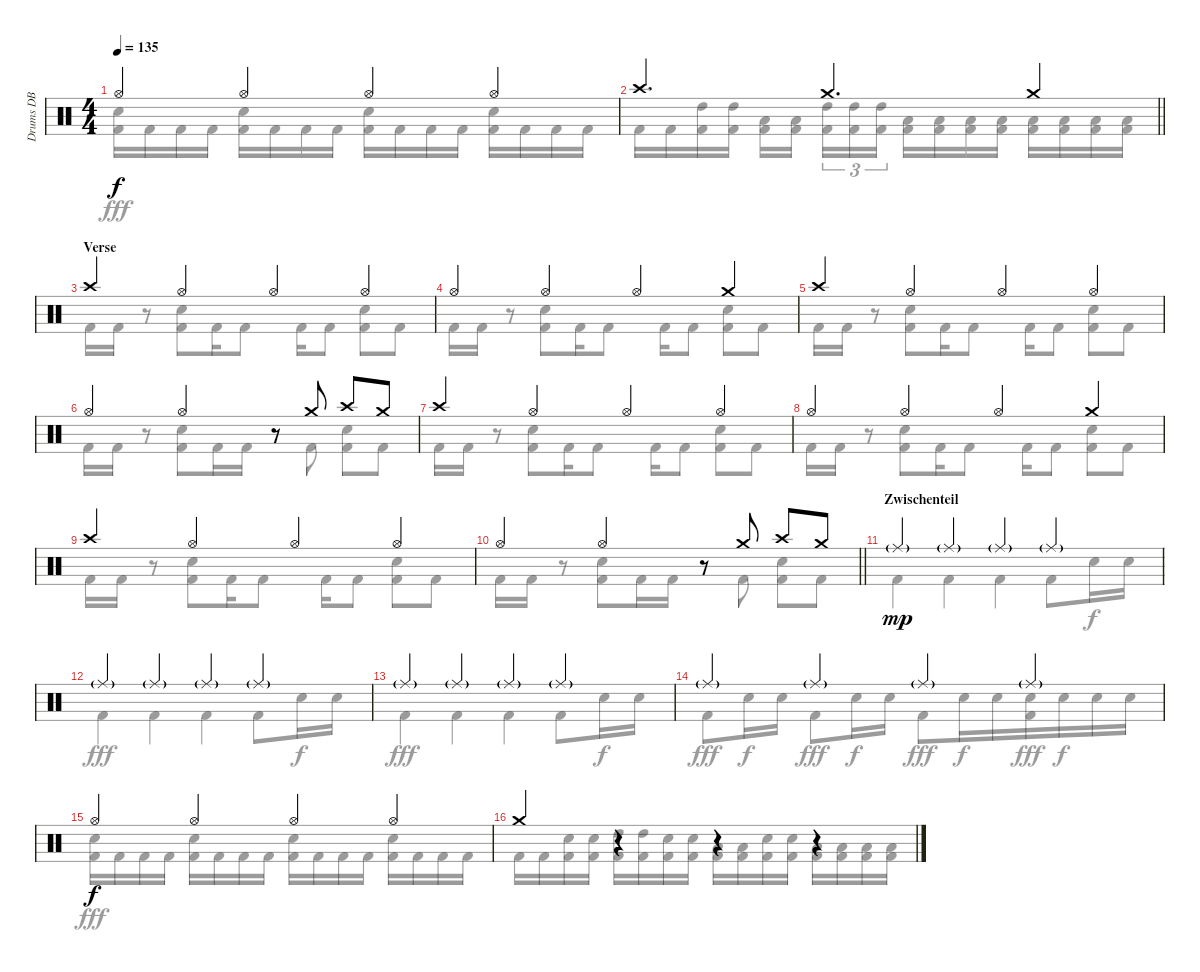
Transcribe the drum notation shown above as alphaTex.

\track ("Drums DB" "Drums DB") {instrument percussion}
\staff {score}
\articulation defaults
\voice
\ts (4 4)
\tempo 135
\clef neutral
\ks aminor "Hi-Hat (open)".4{dy f} "Hi-Hat (open)".4 "Hi-Hat (open)".4 "Hi-Hat (open)".4
|
\barLineRight lightlight "Crash high (hit)".4{d} "Crash medium (hit)".4{d} "Crash medium (hit)".4
|
\section ("" "Verse")
"Crash high (hit)".4 "Hi-Hat (open)".4 "Hi-Hat (open)".4 "Hi-Hat (open)".4 |
"Hi-Hat (open)".4 "Hi-Hat (open)".4 "Hi-Hat (open)".4 "Crash medium (hit)".4 |
"Crash high (hit)".4 "Hi-Hat (open)".4 "Hi-Hat (open)".4 "Hi-Hat (open)".4 |
"Hi-Hat (open)".4 "Hi-Hat (open)".4 r.8 "Crash medium (hit)".8 "Crash high (hit)".8 "Crash medium (hit)".8 |
"Crash high (hit)".4 "Hi-Hat (open)".4 "Hi-Hat (open)".4 "Hi-Hat (open)".4 |
"Hi-Hat (open)".4 "Hi-Hat (open)".4 "Hi-Hat (open)".4 "Crash medium (hit)".4 |
"Crash high (hit)".4 "Hi-Hat (open)".4 "Hi-Hat (open)".4 "Hi-Hat (open)".4 |
\barLineRight lightlight "Hi-Hat (open)".4 "Hi-Hat (open)".4
r.8 "Crash medium (hit)".8 "Crash high (hit)".8 "Crash medium (hit)".8 |
\section ("" "Zwischenteil")
"Ride (middle)"{g}.4{dy mp} "Ride (middle)"{g}.4 "Ride (middle)"{g}.4 "Ride (middle)"{g}.4 |
"Ride (middle)"{g}.4 "Ride (middle)"{g}.4 "Ride (middle)"{g}.4 "Ride (middle)"{g}.4 |
"Ride (middle)"{g}.4 "Ride (middle)"{g}.4 "Ride (middle)"{g}.4 "Ride (middle)"{g}.4 |
"Ride (middle)"{g}.4 "Ride (middle)"{g}.4 "Ride (middle)"{g}.4 "Ride (middle)"{g}.4 |
"Hi-Hat (open)".4{dy f} "Hi-Hat (open)".4 "Hi-Hat (open)".4 "Hi-Hat (open)".4 |
"Crash medium (hit)".4 r.4 r.4 r.4
\voice
\clef neutral
\ottava regular
\simile none
\ks aminor
("Snare (hit) 2" "Kick (hit) 2").16{dy fff} "Kick (hit) 2".16 "Kick (hit) 2".16 "Kick (hit) 2".16 ("Snare (hit) 2" "Kick (hit) 2").16 "Kick (hit) 2".16 "Kick (hit) 2".16 "Kick (hit) 2".16 ("Snare (hit) 2" "Kick (hit) 2").16 "Kick (hit) 2".16 "Kick (hit) 2".16 "Kick (hit) 2".16 ("Snare (hit) 2" "Kick (hit) 2").16 "Kick (hit) 2".16 "Kick (hit) 2".16 "Kick (hit) 2".16 |
\barLineRight lightlight "Kick (hit) 2".16 "Kick (hit) 2".16
("High Tom (hit)" "Kick (hit) 2").16 ("High Tom (hit)" "Kick (hit) 2").16 ("Low Tom (hit)" "Kick (hit) 2").16 ("Low Tom (hit)" "Kick (hit) 2").16{beam splitsecondary} ("High Tom (hit)" "Kick (hit) 2").16{tu (3 2)} ("High Tom (hit)" "Kick (hit) 2").16{tu (3 2)} ("High Tom (hit)" "Kick (hit) 2").16{tu (3 2)} ("Low Tom (hit)" "Kick (hit) 2").16 ("Low Tom (hit)" "Kick (hit) 2").16 ("Low Floor Tom (hit)" "Kick (hit) 2").16 ("Low Floor Tom (hit)" "Kick (hit) 2").16 ("Low Tom (hit)" "Kick (hit) 2").16 ("Low Tom (hit)" "Kick (hit) 2").16 ("Low Floor Tom (hit)" "Kick (hit) 2").16 ("Low Floor Tom (hit)" "Kick (hit) 2").16 |
"Kick (hit) 2".16 "Kick (hit) 2".16 r.8 ("Snare (hit) 2" "Kick (hit) 2").8 "Kick (hit) 2".16 "Kick (hit) 2".8 "Kick (hit) 2".16 "Kick (hit) 2".8 ("Snare (hit) 2" "Kick (hit) 2").8 "Kick (hit) 2".8 |
"Kick (hit) 2".16 "Kick (hit) 2".16 r.8 ("Snare (hit) 2" "Kick (hit) 2").8 "Kick (hit) 2".16 "Kick (hit) 2".8 "Kick (hit) 2".16 "Kick (hit) 2".8 ("Snare (hit) 2" "Kick (hit) 2").8 "Kick (hit) 2".8 |
"Kick (hit) 2".16 "Kick (hit) 2".16 r.8 ("Snare (hit) 2" "Kick (hit) 2").8 "Kick (hit) 2".16 "Kick (hit) 2".8 "Kick (hit) 2".16 "Kick (hit) 2".8 ("Snare (hit) 2" "Kick (hit) 2").8 "Kick (hit) 2".8 |
"Kick (hit) 2".16 "Kick (hit) 2".16 r.8 ("Snare (hit) 2" "Kick (hit) 2").8 "Kick (hit) 2".16 "Kick (hit) 2".16 r.8 "Kick (hit) 2".8 ("Snare (hit) 2" "Kick (hit) 2").8 "Kick (hit) 2".8 |
"Kick (hit) 2".16 "Kick (hit) 2".16 r.8 ("Snare (hit) 2" "Kick (hit) 2").8 "Kick (hit) 2".16 "Kick (hit) 2".8 "Kick (hit) 2".16 "Kick (hit) 2".8 ("Snare (hit) 2" "Kick (hit) 2").8 "Kick (hit) 2".8 |
"Kick (hit) 2".16 "Kick (hit) 2".16 r.8 ("Snare (hit) 2" "Kick (hit) 2").8 "Kick (hit) 2".16 "Kick (hit) 2".8 "Kick (hit) 2".16 "Kick (hit) 2".8 ("Snare (hit) 2" "Kick (hit) 2").8 "Kick (hit) 2".8 |
"Kick (hit) 2".16 "Kick (hit) 2".16 r.8 ("Snare (hit) 2" "Kick (hit) 2").8 "Kick (hit) 2".16 "Kick (hit) 2".8 "Kick (hit) 2".16 "Kick (hit) 2".8 ("Snare (hit) 2" "Kick (hit) 2").8 "Kick (hit) 2".8 |
\barLineRight lightlight "Kick (hit) 2".16 "Kick (hit) 2".16
r.8 ("Snare (hit) 2" "Kick (hit) 2").8 "Kick (hit) 2".16 "Kick (hit) 2".16 r.8 "Kick (hit) 2".8 ("Snare (hit) 2" "Kick (hit) 2").8 "Kick (hit) 2".8 |
"Kick (hit) 2".4 "Kick (hit) 2".4 "Kick (hit) 2".4 "Kick (hit) 2".8{beam merge} "Snare (hit) 2".16{dy f} "Snare (hit) 2".16 |
"Kick (hit) 2".4{dy fff} "Kick (hit) 2".4 "Kick (hit) 2".4 "Kick (hit) 2".8{beam merge} "Snare (hit) 2".16{dy f} "Snare (hit) 2".16 |
"Kick (hit) 2".4{dy fff} "Kick (hit) 2".4 "Kick (hit) 2".4 "Kick (hit) 2".8{beam merge} "Snare (hit) 2".16{dy f} "Snare (hit) 2".16 |
"Kick (hit) 2".8{dy fff beam merge} "Snare (hit) 2".16{dy f} "Snare (hit) 2".16 "Kick (hit) 2".8{dy fff beam merge} "Snare (hit) 2".16{dy f} "Snare (hit) 2".16 "Kick (hit) 2".8{dy fff beam merge} "Snare (hit) 2".16{dy f} "Snare (hit) 2".16{beam merge} ("Snare (hit) 2" "Kick (hit) 2").16{dy fff} "Snare (hit) 2".16{dy f beam merge} "Snare (hit) 2".16 "Snare (hit) 2".16 |
("Snare (hit) 2" "Kick (hit) 2").16{dy fff} "Kick (hit) 2".16 "Kick (hit) 2".16 "Kick (hit) 2".16 ("Snare (hit) 2" "Kick (hit) 2").16 "Kick (hit) 2".16 "Kick (hit) 2".16 "Kick (hit) 2".16 ("Snare (hit) 2" "Kick (hit) 2").16 "Kick (hit) 2".16 "Kick (hit) 2".16 "Kick (hit) 2".16 ("Snare (hit) 2" "Kick (hit) 2").16 "Kick (hit) 2".16 "Kick (hit) 2".16 "Kick (hit) 2".16 |
"Kick (hit) 2".16 "Kick (hit) 2".16 ("Snare (hit) 2" "Kick (hit) 2").16 ("Snare (hit) 2" "Kick (hit) 2").16 ("High Tom (hit)" "Kick (hit) 2").16 ("High Tom (hit)" "Kick (hit) 2").16 ("Snare (hit) 2" "Kick (hit) 2").16 ("Snare (hit) 2" "Kick (hit) 2").16 ("Low Tom (hit)" "Kick (hit) 2").16 ("Low Tom (hit)" "Kick (hit) 2").16 ("Snare (hit) 2" "Kick (hit) 2").16 ("Snare (hit) 2" "Kick (hit) 2").16 ("Low Floor Tom (hit)" "Kick (hit) 2").16 ("Low Floor Tom (hit)" "Kick (hit) 2").16 ("Low Floor Tom (hit)" "Kick (hit) 2").16 ("Low Floor Tom (hit)" "Kick (hit) 2").16
